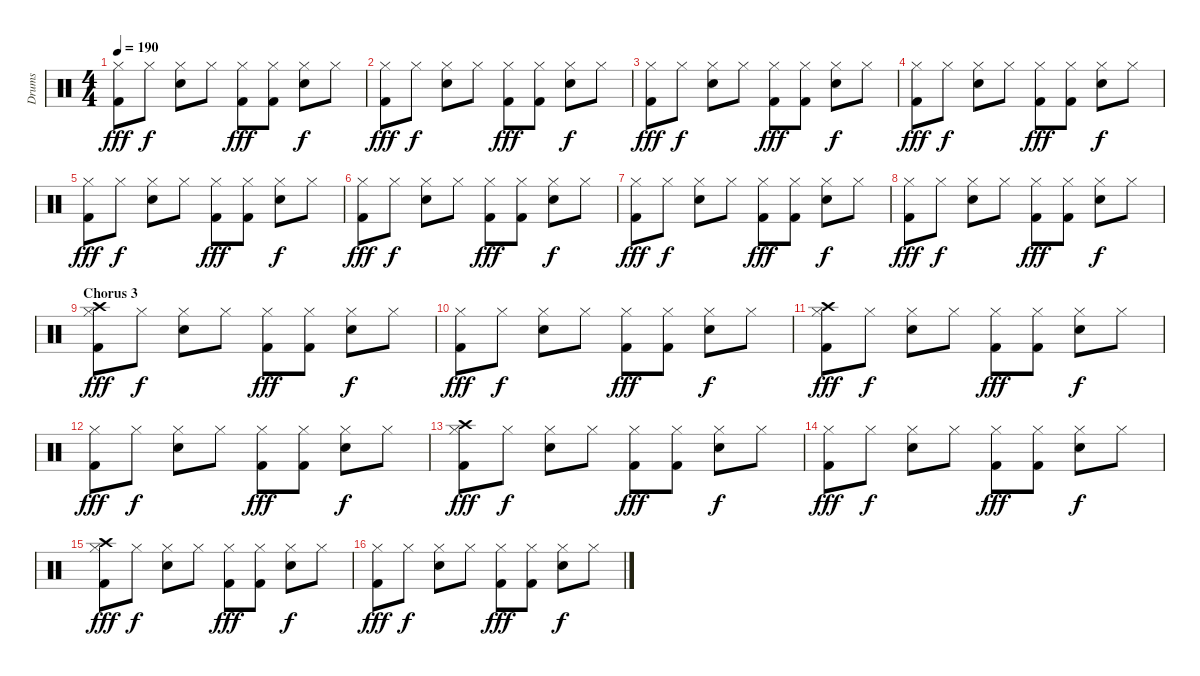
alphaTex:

\track ("Drums" "Drums") {instrument percussion}
\staff {score}
\articulation defaults
\ts (4 4)
\tempo 190
\clef neutral
\ks c
("Hi-Hat (closed)" "Kick (hit) 2").8{dy fff} "Hi-Hat (closed)".8{dy f} ("Hi-Hat (closed)" "Electric Snare (hit)").8 "Hi-Hat (closed)".8 ("Hi-Hat (closed)" "Kick (hit) 2").8{dy fff} ("Hi-Hat (closed)" "Kick (hit) 2").8 ("Hi-Hat (closed)" "Electric Snare (hit)").8{dy f} "Hi-Hat (closed)".8 |
("Hi-Hat (closed)" "Kick (hit) 2").8{dy fff} "Hi-Hat (closed)".8{dy f} ("Hi-Hat (closed)" "Electric Snare (hit)").8 "Hi-Hat (closed)".8 ("Hi-Hat (closed)" "Kick (hit) 2").8{dy fff} ("Hi-Hat (closed)" "Kick (hit) 2").8 ("Hi-Hat (closed)" "Electric Snare (hit)").8{dy f} "Hi-Hat (closed)".8 |
("Hi-Hat (closed)" "Kick (hit) 2").8{dy fff} "Hi-Hat (closed)".8{dy f} ("Hi-Hat (closed)" "Electric Snare (hit)").8 "Hi-Hat (closed)".8 ("Hi-Hat (closed)" "Kick (hit) 2").8{dy fff} ("Hi-Hat (closed)" "Kick (hit) 2").8 ("Hi-Hat (closed)" "Electric Snare (hit)").8{dy f} "Hi-Hat (closed)".8 |
("Hi-Hat (closed)" "Kick (hit) 2").8{dy fff} "Hi-Hat (closed)".8{dy f} ("Hi-Hat (closed)" "Electric Snare (hit)").8 "Hi-Hat (closed)".8 ("Hi-Hat (closed)" "Kick (hit) 2").8{dy fff} ("Hi-Hat (closed)" "Kick (hit) 2").8 ("Hi-Hat (closed)" "Electric Snare (hit)").8{dy f} "Hi-Hat (closed)".8 |
("Hi-Hat (closed)" "Kick (hit) 2").8{dy fff} "Hi-Hat (closed)".8{dy f} ("Hi-Hat (closed)" "Electric Snare (hit)").8 "Hi-Hat (closed)".8 ("Hi-Hat (closed)" "Kick (hit) 2").8{dy fff} ("Hi-Hat (closed)" "Kick (hit) 2").8 ("Hi-Hat (closed)" "Electric Snare (hit)").8{dy f} "Hi-Hat (closed)".8 |
("Hi-Hat (closed)" "Kick (hit) 2").8{dy fff} "Hi-Hat (closed)".8{dy f} ("Hi-Hat (closed)" "Electric Snare (hit)").8 "Hi-Hat (closed)".8 ("Hi-Hat (closed)" "Kick (hit) 2").8{dy fff} ("Hi-Hat (closed)" "Kick (hit) 2").8 ("Hi-Hat (closed)" "Electric Snare (hit)").8{dy f} "Hi-Hat (closed)".8 |
("Hi-Hat (closed)" "Kick (hit) 2").8{dy fff} "Hi-Hat (closed)".8{dy f} ("Hi-Hat (closed)" "Electric Snare (hit)").8 "Hi-Hat (closed)".8 ("Hi-Hat (closed)" "Kick (hit) 2").8{dy fff} ("Hi-Hat (closed)" "Kick (hit) 2").8 ("Hi-Hat (closed)" "Electric Snare (hit)").8{dy f} "Hi-Hat (closed)".8 |
("Hi-Hat (closed)" "Kick (hit) 2").8{dy fff} "Hi-Hat (closed)".8{dy f} ("Hi-Hat (closed)" "Electric Snare (hit)").8 "Hi-Hat (closed)".8 ("Hi-Hat (closed)" "Kick (hit) 2").8{dy fff} ("Hi-Hat (closed)" "Kick (hit) 2").8 ("Hi-Hat (closed)" "Electric Snare (hit)").8{dy f} "Hi-Hat (closed)".8 |
\section ("" "Chorus 3")
("Crash high (hit)" "Hi-Hat (closed)" "Kick (hit) 2").8{dy fff} "Hi-Hat (closed)".8{dy f} ("Hi-Hat (closed)" "Electric Snare (hit)").8 "Hi-Hat (closed)".8 ("Hi-Hat (closed)" "Kick (hit) 2").8{dy fff} ("Hi-Hat (closed)" "Kick (hit) 2").8 ("Hi-Hat (closed)" "Electric Snare (hit)").8{dy f} "Hi-Hat (closed)".8 |
("Hi-Hat (closed)" "Kick (hit) 2").8{dy fff} "Hi-Hat (closed)".8{dy f} ("Hi-Hat (closed)" "Electric Snare (hit)").8 "Hi-Hat (closed)".8 ("Hi-Hat (closed)" "Kick (hit) 2").8{dy fff} ("Hi-Hat (closed)" "Kick (hit) 2").8 ("Hi-Hat (closed)" "Electric Snare (hit)").8{dy f} "Hi-Hat (closed)".8 |
("Crash high (hit)" "Hi-Hat (closed)" "Kick (hit) 2").8{dy fff} "Hi-Hat (closed)".8{dy f} ("Hi-Hat (closed)" "Electric Snare (hit)").8 "Hi-Hat (closed)".8 ("Hi-Hat (closed)" "Kick (hit) 2").8{dy fff} ("Hi-Hat (closed)" "Kick (hit) 2").8 ("Hi-Hat (closed)" "Electric Snare (hit)").8{dy f} "Hi-Hat (closed)".8 |
("Hi-Hat (closed)" "Kick (hit) 2").8{dy fff} "Hi-Hat (closed)".8{dy f} ("Hi-Hat (closed)" "Electric Snare (hit)").8 "Hi-Hat (closed)".8 ("Hi-Hat (closed)" "Kick (hit) 2").8{dy fff} ("Hi-Hat (closed)" "Kick (hit) 2").8 ("Hi-Hat (closed)" "Electric Snare (hit)").8{dy f} "Hi-Hat (closed)".8 |
("Crash high (hit)" "Hi-Hat (closed)" "Kick (hit) 2").8{dy fff} "Hi-Hat (closed)".8{dy f} ("Hi-Hat (closed)" "Electric Snare (hit)").8 "Hi-Hat (closed)".8 ("Hi-Hat (closed)" "Kick (hit) 2").8{dy fff} ("Hi-Hat (closed)" "Kick (hit) 2").8 ("Hi-Hat (closed)" "Electric Snare (hit)").8{dy f} "Hi-Hat (closed)".8 |
("Hi-Hat (closed)" "Kick (hit) 2").8{dy fff} "Hi-Hat (closed)".8{dy f} ("Hi-Hat (closed)" "Electric Snare (hit)").8 "Hi-Hat (closed)".8 ("Hi-Hat (closed)" "Kick (hit) 2").8{dy fff} ("Hi-Hat (closed)" "Kick (hit) 2").8 ("Hi-Hat (closed)" "Electric Snare (hit)").8{dy f} "Hi-Hat (closed)".8 |
("Crash high (hit)" "Hi-Hat (closed)" "Kick (hit) 2").8{dy fff} "Hi-Hat (closed)".8{dy f} ("Hi-Hat (closed)" "Electric Snare (hit)").8 "Hi-Hat (closed)".8 ("Hi-Hat (closed)" "Kick (hit) 2").8{dy fff} ("Hi-Hat (closed)" "Kick (hit) 2").8 ("Hi-Hat (closed)" "Electric Snare (hit)").8{dy f} "Hi-Hat (closed)".8 |
("Hi-Hat (closed)" "Kick (hit) 2").8{dy fff} "Hi-Hat (closed)".8{dy f} ("Hi-Hat (closed)" "Electric Snare (hit)").8 "Hi-Hat (closed)".8 ("Hi-Hat (closed)" "Kick (hit) 2").8{dy fff} ("Hi-Hat (closed)" "Kick (hit) 2").8 ("Hi-Hat (closed)" "Electric Snare (hit)").8{dy f} "Hi-Hat (closed)".8
